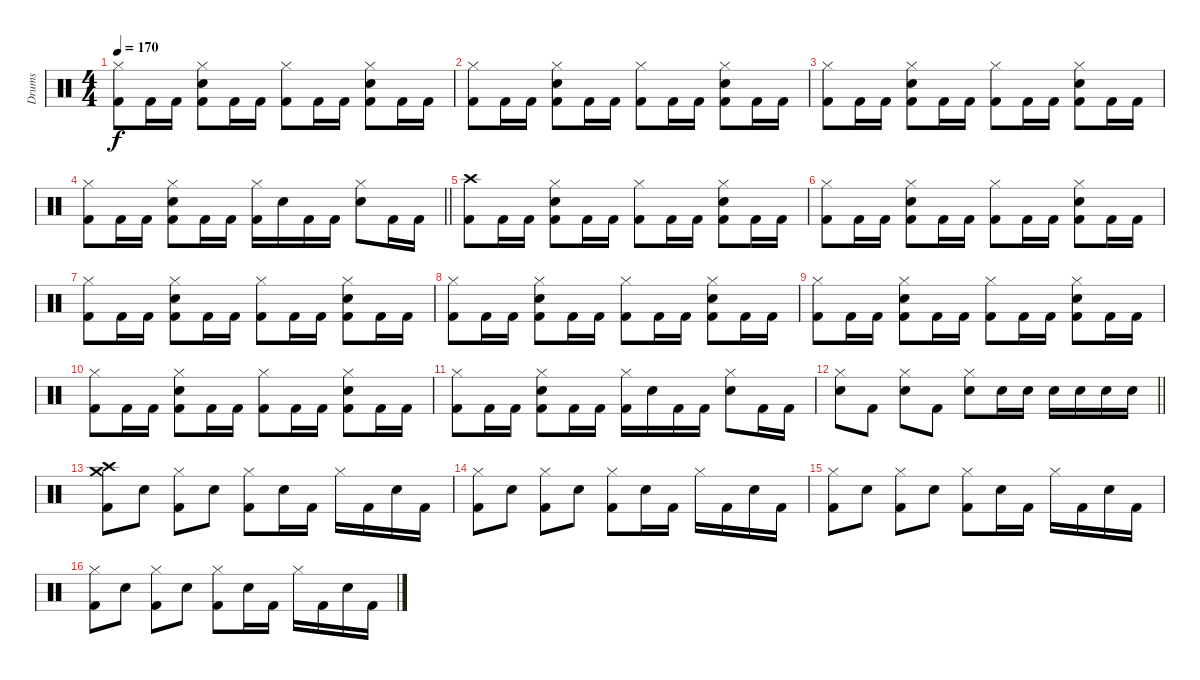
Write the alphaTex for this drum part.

\track ("Drums" "Drums") {instrument percussion}
\staff {score}
\articulation defaults
\ts (4 4)
\tempo 170
\clef neutral
\ks c
("Hi-Hat (closed)" "Kick (hit) 2").8{dy f} "Kick (hit) 2".16 "Kick (hit) 2".16 ("Hi-Hat (closed)" "Snare (hit) 2" "Kick (hit) 2").8 "Kick (hit) 2".16 "Kick (hit) 2".16 ("Hi-Hat (closed)" "Kick (hit) 2").8 "Kick (hit) 2".16 "Kick (hit) 2".16 ("Hi-Hat (closed)" "Snare (hit) 2" "Kick (hit) 2").8 "Kick (hit) 2".16 "Kick (hit) 2".16 |
("Hi-Hat (closed)" "Kick (hit) 2").8 "Kick (hit) 2".16 "Kick (hit) 2".16 ("Hi-Hat (closed)" "Snare (hit) 2" "Kick (hit) 2").8 "Kick (hit) 2".16 "Kick (hit) 2".16 ("Hi-Hat (closed)" "Kick (hit) 2").8 "Kick (hit) 2".16 "Kick (hit) 2".16 ("Hi-Hat (closed)" "Snare (hit) 2" "Kick (hit) 2").8 "Kick (hit) 2".16 "Kick (hit) 2".16 |
("Hi-Hat (closed)" "Kick (hit) 2").8 "Kick (hit) 2".16 "Kick (hit) 2".16 ("Hi-Hat (closed)" "Snare (hit) 2" "Kick (hit) 2").8 "Kick (hit) 2".16 "Kick (hit) 2".16 ("Hi-Hat (closed)" "Kick (hit) 2").8 "Kick (hit) 2".16 "Kick (hit) 2".16 ("Hi-Hat (closed)" "Snare (hit) 2" "Kick (hit) 2").8 "Kick (hit) 2".16 "Kick (hit) 2".16 |
\barLineRight lightlight
("Hi-Hat (closed)" "Kick (hit) 2").8 "Kick (hit) 2".16 "Kick (hit) 2".16 ("Hi-Hat (closed)" "Snare (hit) 2" "Kick (hit) 2").8 "Kick (hit) 2".16 "Kick (hit) 2".16 ("Hi-Hat (closed)" "Kick (hit) 2").16 "Snare (hit) 2".16 "Kick (hit) 2".16 "Kick (hit) 2".16 ("Hi-Hat (closed)" "Snare (hit) 2").8 "Kick (hit) 2".16 "Kick (hit) 2".16 |
("Crash high (hit)" "Kick (hit) 2").8 "Kick (hit) 2".16 "Kick (hit) 2".16 ("Hi-Hat (closed)" "Snare (hit) 2" "Kick (hit) 2").8 "Kick (hit) 2".16 "Kick (hit) 2".16 ("Hi-Hat (closed)" "Kick (hit) 2").8 "Kick (hit) 2".16 "Kick (hit) 2".16 ("Hi-Hat (closed)" "Snare (hit) 2" "Kick (hit) 2").8 "Kick (hit) 2".16 "Kick (hit) 2".16 |
("Hi-Hat (closed)" "Kick (hit) 2").8 "Kick (hit) 2".16 "Kick (hit) 2".16 ("Hi-Hat (closed)" "Snare (hit) 2" "Kick (hit) 2").8 "Kick (hit) 2".16 "Kick (hit) 2".16 ("Hi-Hat (closed)" "Kick (hit) 2").8 "Kick (hit) 2".16 "Kick (hit) 2".16 ("Hi-Hat (closed)" "Snare (hit) 2" "Kick (hit) 2").8 "Kick (hit) 2".16 "Kick (hit) 2".16 |
("Hi-Hat (closed)" "Kick (hit) 2").8 "Kick (hit) 2".16 "Kick (hit) 2".16 ("Hi-Hat (closed)" "Snare (hit) 2" "Kick (hit) 2").8 "Kick (hit) 2".16 "Kick (hit) 2".16 ("Hi-Hat (closed)" "Kick (hit) 2").8 "Kick (hit) 2".16 "Kick (hit) 2".16 ("Hi-Hat (closed)" "Snare (hit) 2" "Kick (hit) 2").8 "Kick (hit) 2".16 "Kick (hit) 2".16 |
("Hi-Hat (closed)" "Kick (hit) 2").8 "Kick (hit) 2".16 "Kick (hit) 2".16 ("Hi-Hat (closed)" "Snare (hit) 2" "Kick (hit) 2").8 "Kick (hit) 2".16 "Kick (hit) 2".16 ("Hi-Hat (closed)" "Kick (hit) 2").8 "Kick (hit) 2".16 "Kick (hit) 2".16 ("Hi-Hat (closed)" "Snare (hit) 2" "Kick (hit) 2").8 "Kick (hit) 2".16 "Kick (hit) 2".16 |
("Hi-Hat (closed)" "Kick (hit) 2").8 "Kick (hit) 2".16 "Kick (hit) 2".16 ("Hi-Hat (closed)" "Snare (hit) 2" "Kick (hit) 2").8 "Kick (hit) 2".16 "Kick (hit) 2".16 ("Hi-Hat (closed)" "Kick (hit) 2").8 "Kick (hit) 2".16 "Kick (hit) 2".16 ("Hi-Hat (closed)" "Snare (hit) 2" "Kick (hit) 2").8 "Kick (hit) 2".16 "Kick (hit) 2".16 |
("Hi-Hat (closed)" "Kick (hit) 2").8 "Kick (hit) 2".16 "Kick (hit) 2".16 ("Hi-Hat (closed)" "Snare (hit) 2" "Kick (hit) 2").8 "Kick (hit) 2".16 "Kick (hit) 2".16 ("Hi-Hat (closed)" "Kick (hit) 2").8 "Kick (hit) 2".16 "Kick (hit) 2".16 ("Hi-Hat (closed)" "Snare (hit) 2" "Kick (hit) 2").8 "Kick (hit) 2".16 "Kick (hit) 2".16 |
("Hi-Hat (closed)" "Kick (hit) 2").8 "Kick (hit) 2".16 "Kick (hit) 2".16 ("Hi-Hat (closed)" "Snare (hit) 2" "Kick (hit) 2").8 "Kick (hit) 2".16 "Kick (hit) 2".16 ("Hi-Hat (closed)" "Kick (hit) 2").16 "Snare (hit) 2".16 "Kick (hit) 2".16 "Kick (hit) 2".16 ("Hi-Hat (closed)" "Snare (hit) 2").8 "Kick (hit) 2".16 "Kick (hit) 2".16 |
\barLineRight lightlight
("Hi-Hat (closed)" "Snare (hit) 2").8 "Kick (hit) 2".8 ("Hi-Hat (closed)" "Snare (hit) 2").8 "Kick (hit) 2".8 ("Hi-Hat (closed)" "Snare (hit) 2").8 "Snare (hit) 2".16 "Snare (hit) 2".16 "Snare (hit) 2".16 "Snare (hit) 2".16 "Snare (hit) 2".16 "Snare (hit) 2".16 |
("Crash high (hit)" "Crash medium (hit)" "Kick (hit) 2").8 "Snare (hit) 2".8 ("Hi-Hat (closed)" "Kick (hit) 2").8 "Snare (hit) 2".8 ("Hi-Hat (closed)" "Kick (hit) 2").8 "Snare (hit) 2".16 "Kick (hit) 2".16 "Hi-Hat (closed)".16 "Kick (hit) 2".16 "Snare (hit) 2".16 "Kick (hit) 2".16 |
("Hi-Hat (closed)" "Kick (hit) 2").8 "Snare (hit) 2".8 ("Hi-Hat (closed)" "Kick (hit) 2").8 "Snare (hit) 2".8 ("Hi-Hat (closed)" "Kick (hit) 2").8 "Snare (hit) 2".16 "Kick (hit) 2".16 "Hi-Hat (closed)".16 "Kick (hit) 2".16 "Snare (hit) 2".16 "Kick (hit) 2".16 |
("Hi-Hat (closed)" "Kick (hit) 2").8 "Snare (hit) 2".8 ("Hi-Hat (closed)" "Kick (hit) 2").8 "Snare (hit) 2".8 ("Hi-Hat (closed)" "Kick (hit) 2").8 "Snare (hit) 2".16 "Kick (hit) 2".16 "Hi-Hat (closed)".16 "Kick (hit) 2".16 "Snare (hit) 2".16 "Kick (hit) 2".16 |
("Hi-Hat (closed)" "Kick (hit) 2").8 "Snare (hit) 2".8 ("Hi-Hat (closed)" "Kick (hit) 2").8 "Snare (hit) 2".8 ("Hi-Hat (closed)" "Kick (hit) 2").8 "Snare (hit) 2".16 "Kick (hit) 2".16 "Hi-Hat (closed)".16 "Kick (hit) 2".16 "Snare (hit) 2".16 "Kick (hit) 2".16
